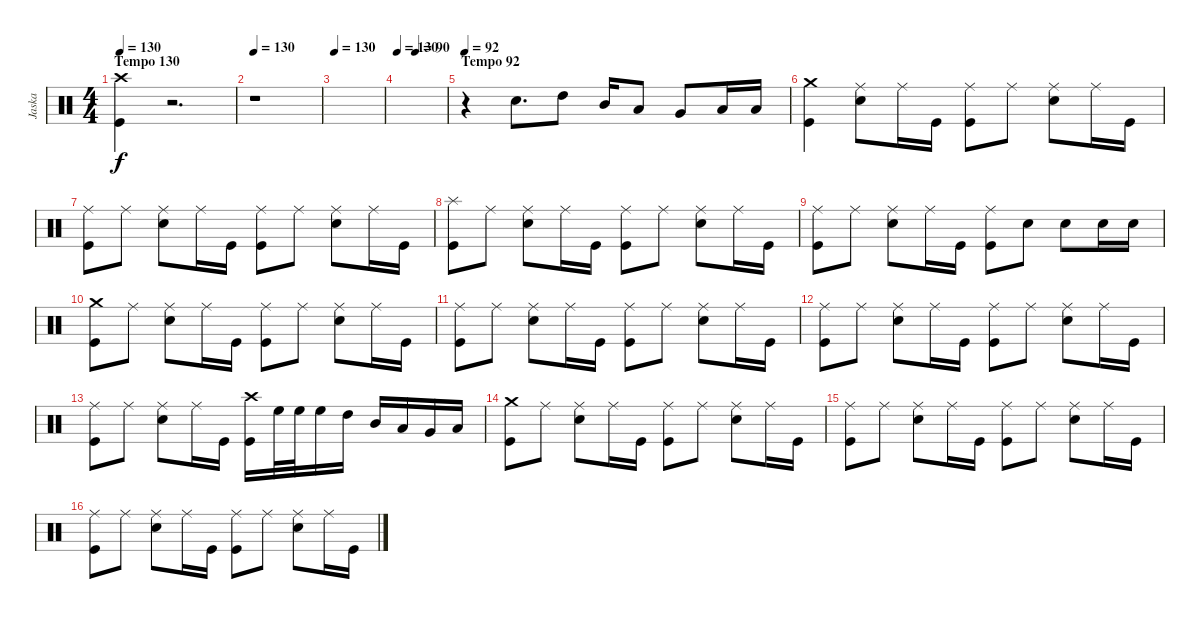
\track ("Jaska" "Jaska") {instrument percussion}
\staff {score}
\articulation defaults
\ts (4 4)
\section ("" "Tempo 130")
\tempo 130
\clef neutral
\ks c
("Crash high (hit)" "Kick (hit)").4{dy f} r.2{d} |
\tempo 130
r.1 |
\tempo 130
|
\tempo (90 0.375)
\tempo 130
|
\section ("" "Tempo 92")
\tempo 92
r.4 "Electric Snare (hit)".8{d} "High Tom (hit)".8 "Mid Tom (hit)".16 "Low Tom (hit)".8 "Very Low Tom (hit)".8 "Low Floor Tom (hit)".16 "Low Floor Tom (hit)".16 |
("Crash medium (hit)" "Kick (hit)").4 ("Ride (middle)" "Electric Snare (hit)").8 "Ride (middle)".16 "Kick (hit)".16 ("Ride (middle)" "Kick (hit)").8 "Ride (middle)".8 ("Ride (middle)" "Electric Snare (hit)").8 "Ride (middle)".16 "Kick (hit)".16 |
("Ride (middle)" "Kick (hit)").8 "Ride (middle)".8 ("Ride (middle)" "Electric Snare (hit)").8 "Ride (middle)".16 "Kick (hit)".16 ("Ride (middle)" "Kick (hit)").8 "Ride (middle)".8 ("Ride (middle)" "Electric Snare (hit)").8 "Ride (middle)".16 "Kick (hit)".16 |
("Splash (hit)" "Kick (hit)").8 "Ride (middle)".8 ("Ride (middle)" "Electric Snare (hit)").8 "Ride (middle)".16 "Kick (hit)".16 ("Ride (middle)" "Kick (hit)").8 "Ride (middle)".8 ("Ride (middle)" "Electric Snare (hit)").8 "Ride (middle)".16 "Kick (hit)".16 |
("Ride (middle)" "Kick (hit)").8 "Ride (middle)".8 ("Ride (middle)" "Electric Snare (hit)").8 "Ride (middle)".16 "Kick (hit)".16 ("Ride (middle)" "Kick (hit)").8 "Electric Snare (hit)".8 "Electric Snare (hit)".8 "Electric Snare (hit)".16 "Electric Snare (hit)".16 |
("Crash medium (hit)" "Kick (hit)").8 "Ride (middle)".8 ("Ride (middle)" "Electric Snare (hit)").8 "Ride (middle)".16 "Kick (hit)".16 ("Ride (middle)" "Kick (hit)").8 "Ride (middle)".8 ("Ride (middle)" "Electric Snare (hit)").8 "Ride (middle)".16 "Kick (hit)".16 |
("Ride (middle)" "Kick (hit)").8 "Ride (middle)".8 ("Ride (middle)" "Electric Snare (hit)").8 "Ride (middle)".16 "Kick (hit)".16 ("Ride (middle)" "Kick (hit)").8 "Ride (middle)".8 ("Ride (middle)" "Electric Snare (hit)").8 "Ride (middle)".16 "Kick (hit)".16 |
("Ride (middle)" "Kick (hit)").8 "Ride (middle)".8 ("Ride (middle)" "Electric Snare (hit)").8 "Ride (middle)".16 "Kick (hit)".16 ("Ride (middle)" "Kick (hit)").8 "Ride (middle)".8 ("Ride (middle)" "Electric Snare (hit)").8 "Ride (middle)".16 "Kick (hit)".16 |
("Ride (middle)" "Kick (hit)").8 "Ride (middle)".8 ("Ride (middle)" "Electric Snare (hit)").8 "Ride (middle)".16 "Kick (hit)".16 ("Crash high (hit)" "Kick (hit)").16 "High Floor Tom (hit)".32 "High Floor Tom (hit)".32 "High Floor Tom (hit)".16 "High Tom (hit)".16 "Mid Tom (hit)".16 "Low Tom (hit)".16 "Very Low Tom (hit)".16 "Low Floor Tom (hit)".16 |
("Crash medium (hit)" "Kick (hit)").8 "Ride (middle)".8 ("Ride (middle)" "Electric Snare (hit)").8 "Ride (middle)".16 "Kick (hit)".16 ("Ride (middle)" "Kick (hit)").8 "Ride (middle)".8 ("Ride (middle)" "Electric Snare (hit)").8 "Ride (middle)".16 "Kick (hit)".16 |
("Ride (middle)" "Kick (hit)").8 "Ride (middle)".8 ("Ride (middle)" "Electric Snare (hit)").8 "Ride (middle)".16 "Kick (hit)".16 ("Ride (middle)" "Kick (hit)").8 "Ride (middle)".8 ("Ride (middle)" "Electric Snare (hit)").8 "Ride (middle)".16 "Kick (hit)".16 |
("Ride (middle)" "Kick (hit)").8 "Ride (middle)".8 ("Ride (middle)" "Electric Snare (hit)").8 "Ride (middle)".16 "Kick (hit)".16 ("Ride (middle)" "Kick (hit)").8 "Ride (middle)".8 ("Ride (middle)" "Electric Snare (hit)").8 "Ride (middle)".16 "Kick (hit)".16
